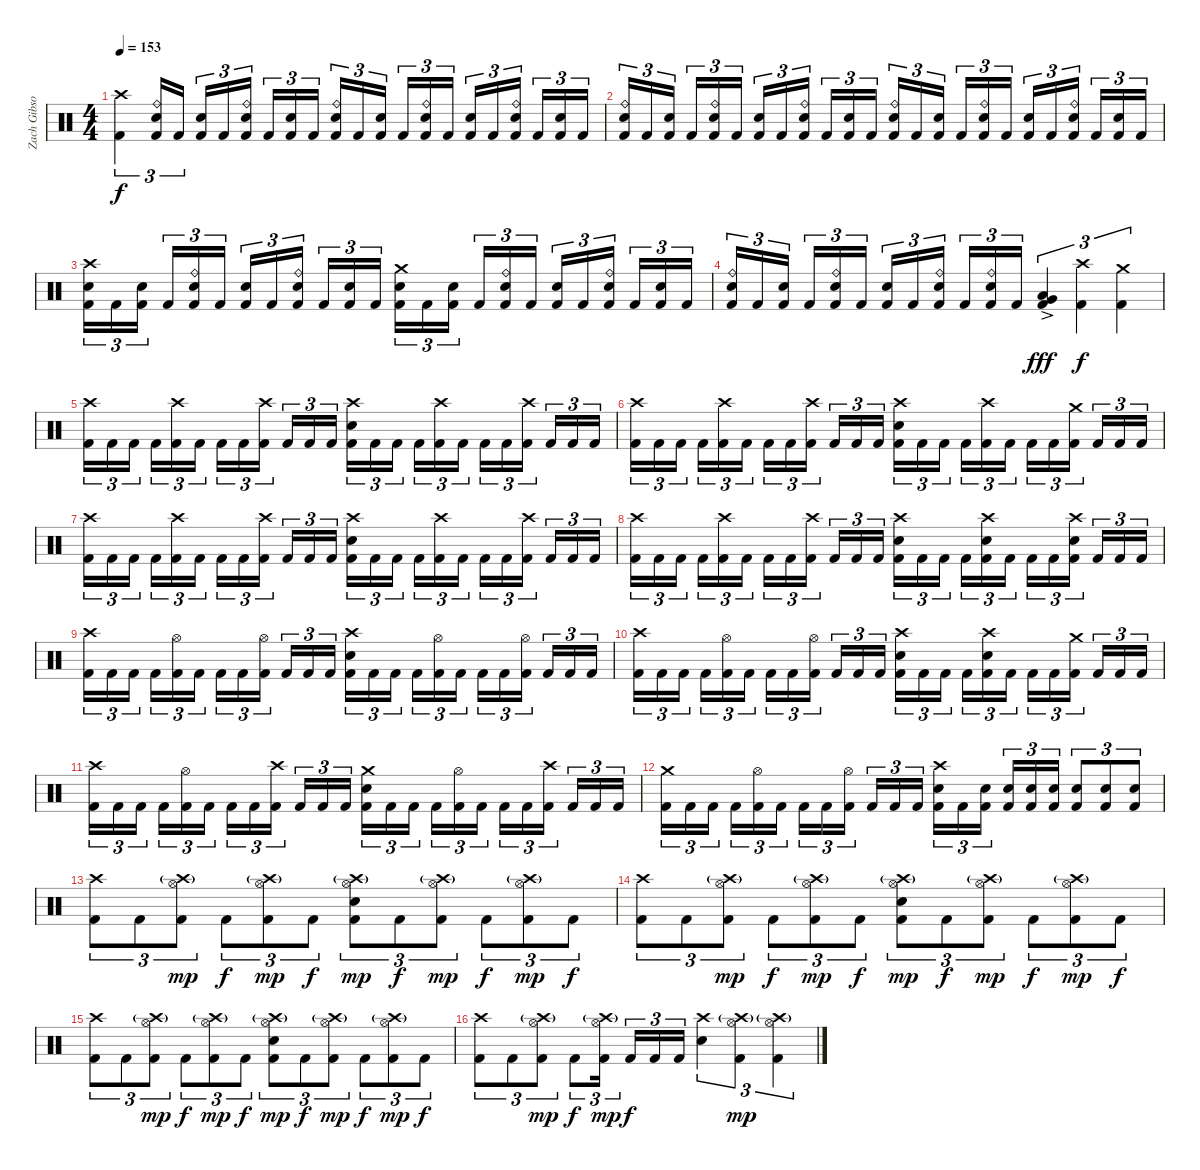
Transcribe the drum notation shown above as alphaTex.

\track ("Zach Gibson (Drums)" "Zach Gibso") {instrument percussion}
\staff {score}
\articulation defaults
\ts (4 4)
\tempo 153
\clef neutral
\ks c
("Crash high (hit)" "Kick (hit) 2").4{tu (3 2) dy f} ("Ride (bell)" "Snare (hit) 2" "Kick (hit) 2").16{tu (3 2)} "Kick (hit) 2".16{tu (3 2)} ("Snare (hit) 2" "Kick (hit) 2").16{tu (3 2)} "Kick (hit) 2".16{tu (3 2)} ("Ride (bell)" "Snare (hit) 2" "Kick (hit) 2").16{tu (3 2)} "Kick (hit) 2".16{tu (3 2)} ("Snare (hit) 2" "Kick (hit) 2").16{tu (3 2)} "Kick (hit) 2".16{tu (3 2)} ("Ride (bell)" "Snare (hit) 2" "Kick (hit) 2").16{tu (3 2)} "Kick (hit) 2".16{tu (3 2)} ("Snare (hit) 2" "Kick (hit) 2").16{tu (3 2)} "Kick (hit) 2".16{tu (3 2)} ("Ride (bell)" "Snare (hit) 2" "Kick (hit) 2").16{tu (3 2)} "Kick (hit) 2".16{tu (3 2)} ("Snare (hit) 2" "Kick (hit) 2").16{tu (3 2)} "Kick (hit) 2".16{tu (3 2)} ("Ride (bell)" "Snare (hit) 2" "Kick (hit) 2").16{tu (3 2)} "Kick (hit) 2".16{tu (3 2)} ("Snare (hit) 2" "Kick (hit) 2").16{tu (3 2)} "Kick (hit) 2".16{tu (3 2)} |
("Ride (bell)" "Snare (hit) 2" "Kick (hit) 2").16{tu (3 2)} "Kick (hit) 2".16{tu (3 2)} ("Snare (hit) 2" "Kick (hit) 2").16{tu (3 2)} "Kick (hit) 2".16{tu (3 2)} ("Ride (bell)" "Snare (hit) 2" "Kick (hit) 2").16{tu (3 2)} "Kick (hit) 2".16{tu (3 2)} ("Snare (hit) 2" "Kick (hit) 2").16{tu (3 2)} "Kick (hit) 2".16{tu (3 2)} ("Ride (bell)" "Snare (hit) 2" "Kick (hit) 2").16{tu (3 2)} "Kick (hit) 2".16{tu (3 2)} ("Snare (hit) 2" "Kick (hit) 2").16{tu (3 2)} "Kick (hit) 2".16{tu (3 2)} ("Ride (bell)" "Snare (hit) 2" "Kick (hit) 2").16{tu (3 2)} "Kick (hit) 2".16{tu (3 2)} ("Snare (hit) 2" "Kick (hit) 2").16{tu (3 2)} "Kick (hit) 2".16{tu (3 2)} ("Ride (bell)" "Snare (hit) 2" "Kick (hit) 2").16{tu (3 2)} "Kick (hit) 2".16{tu (3 2)} ("Snare (hit) 2" "Kick (hit) 2").16{tu (3 2)} "Kick (hit) 2".16{tu (3 2)} ("Ride (bell)" "Snare (hit) 2" "Kick (hit) 2").16{tu (3 2)} "Kick (hit) 2".16{tu (3 2)} ("Snare (hit) 2" "Kick (hit) 2").16{tu (3 2)} "Kick (hit) 2".16{tu (3 2)} |
("Crash high (hit)" "Snare (hit) 2" "Kick (hit) 2").16{tu (3 2)} "Kick (hit) 2".16{tu (3 2)} ("Snare (hit) 2" "Kick (hit) 2").16{tu (3 2)} "Kick (hit) 2".16{tu (3 2)} ("Ride (bell)" "Snare (hit) 2" "Kick (hit) 2").16{tu (3 2)} "Kick (hit) 2".16{tu (3 2)} ("Snare (hit) 2" "Kick (hit) 2").16{tu (3 2)} "Kick (hit) 2".16{tu (3 2)} ("Ride (bell)" "Snare (hit) 2" "Kick (hit) 2").16{tu (3 2)} "Kick (hit) 2".16{tu (3 2)} ("Snare (hit) 2" "Kick (hit) 2").16{tu (3 2)} "Kick (hit) 2".16{tu (3 2)} ("Crash medium (hit)" "Snare (hit) 2" "Kick (hit) 2").16{tu (3 2)} "Kick (hit) 2".16{tu (3 2)} ("Snare (hit) 2" "Kick (hit) 2").16{tu (3 2)} "Kick (hit) 2".16{tu (3 2)} ("Ride (bell)" "Snare (hit) 2" "Kick (hit) 2").16{tu (3 2)} "Kick (hit) 2".16{tu (3 2)} ("Snare (hit) 2" "Kick (hit) 2").16{tu (3 2)} "Kick (hit) 2".16{tu (3 2)} ("Ride (bell)" "Snare (hit) 2" "Kick (hit) 2").16{tu (3 2)} "Kick (hit) 2".16{tu (3 2)} ("Snare (hit) 2" "Kick (hit) 2").16{tu (3 2)} "Kick (hit) 2".16{tu (3 2)} |
("Ride (bell)" "Snare (hit) 2" "Kick (hit) 2").16{tu (3 2)} "Kick (hit) 2".16{tu (3 2)} ("Snare (hit) 2" "Kick (hit) 2").16{tu (3 2)} "Kick (hit) 2".16{tu (3 2)} ("Ride (bell)" "Snare (hit) 2" "Kick (hit) 2").16{tu (3 2)} "Kick (hit) 2".16{tu (3 2)} ("Snare (hit) 2" "Kick (hit) 2").16{tu (3 2)} "Kick (hit) 2".16{tu (3 2)} ("Ride (bell)" "Snare (hit) 2" "Kick (hit) 2").16{tu (3 2)} "Kick (hit) 2".16{tu (3 2)} ("Ride (bell)" "Snare (hit) 2" "Kick (hit) 2").16{tu (3 2)} "Kick (hit) 2".16{tu (3 2)} ("Low Floor Tom (hit)"{ac} "Very Low Tom (hit)"{ac} "Kick (hit) 2").4{tu (3 2) dy fff} ("Crash high (hit)" "Kick (hit) 2").4{tu (3 2) dy f} ("Crash medium (hit)" "Kick (hit) 2").4{tu (3 2)} |
("Crash high (hit)" "Kick (hit) 2").16{tu (3 2)} "Kick (hit) 2".16{tu (3 2)} "Kick (hit) 2".16{tu (3 2)} "Kick (hit) 2".16{tu (3 2)} ("Crash high (hit)" "Kick (hit) 2").16{tu (3 2)} "Kick (hit) 2".16{tu (3 2)} "Kick (hit) 2".16{tu (3 2)} "Kick (hit) 2".16{tu (3 2)} ("Crash high (hit)" "Kick (hit) 2").16{tu (3 2)} "Kick (hit) 2".16{tu (3 2)} "Kick (hit) 2".16{tu (3 2)} "Kick (hit) 2".16{tu (3 2)} ("Snare (hit) 2" "Crash high (hit)" "Kick (hit) 2").16{tu (3 2)} "Kick (hit) 2".16{tu (3 2)} "Kick (hit) 2".16{tu (3 2)} "Kick (hit) 2".16{tu (3 2)} ("Crash high (hit)" "Kick (hit) 2").16{tu (3 2)} "Kick (hit) 2".16{tu (3 2)} "Kick (hit) 2".16{tu (3 2)} "Kick (hit) 2".16{tu (3 2)} ("Crash high (hit)" "Kick (hit) 2").16{tu (3 2)} "Kick (hit) 2".16{tu (3 2)} "Kick (hit) 2".16{tu (3 2)} "Kick (hit) 2".16{tu (3 2)} |
("Crash high (hit)" "Kick (hit) 2").16{tu (3 2)} "Kick (hit) 2".16{tu (3 2)} "Kick (hit) 2".16{tu (3 2)} "Kick (hit) 2".16{tu (3 2)} ("Crash high (hit)" "Kick (hit) 2").16{tu (3 2)} "Kick (hit) 2".16{tu (3 2)} "Kick (hit) 2".16{tu (3 2)} "Kick (hit) 2".16{tu (3 2)} ("Crash high (hit)" "Kick (hit) 2").16{tu (3 2)} "Kick (hit) 2".16{tu (3 2)} "Kick (hit) 2".16{tu (3 2)} "Kick (hit) 2".16{tu (3 2)} ("Snare (hit) 2" "Crash high (hit)" "Kick (hit) 2").16{tu (3 2)} "Kick (hit) 2".16{tu (3 2)} "Kick (hit) 2".16{tu (3 2)} "Kick (hit) 2".16{tu (3 2)} ("Crash high (hit)" "Kick (hit) 2").16{tu (3 2)} "Kick (hit) 2".16{tu (3 2)} "Kick (hit) 2".16{tu (3 2)} "Kick (hit) 2".16{tu (3 2)} ("Crash medium (hit)" "Kick (hit) 2").16{tu (3 2)} "Kick (hit) 2".16{tu (3 2)} "Kick (hit) 2".16{tu (3 2)} "Kick (hit) 2".16{tu (3 2)} |
("Crash high (hit)" "Kick (hit) 2").16{tu (3 2)} "Kick (hit) 2".16{tu (3 2)} "Kick (hit) 2".16{tu (3 2)} "Kick (hit) 2".16{tu (3 2)} ("Crash high (hit)" "Kick (hit) 2").16{tu (3 2)} "Kick (hit) 2".16{tu (3 2)} "Kick (hit) 2".16{tu (3 2)} "Kick (hit) 2".16{tu (3 2)} ("Crash high (hit)" "Kick (hit) 2").16{tu (3 2)} "Kick (hit) 2".16{tu (3 2)} "Kick (hit) 2".16{tu (3 2)} "Kick (hit) 2".16{tu (3 2)} ("Snare (hit) 2" "Crash high (hit)" "Kick (hit) 2").16{tu (3 2)} "Kick (hit) 2".16{tu (3 2)} "Kick (hit) 2".16{tu (3 2)} "Kick (hit) 2".16{tu (3 2)} ("Crash high (hit)" "Kick (hit) 2").16{tu (3 2)} "Kick (hit) 2".16{tu (3 2)} "Kick (hit) 2".16{tu (3 2)} "Kick (hit) 2".16{tu (3 2)} ("Crash high (hit)" "Kick (hit) 2").16{tu (3 2)} "Kick (hit) 2".16{tu (3 2)} "Kick (hit) 2".16{tu (3 2)} "Kick (hit) 2".16{tu (3 2)} |
("Crash high (hit)" "Kick (hit) 2").16{tu (3 2)} "Kick (hit) 2".16{tu (3 2)} "Kick (hit) 2".16{tu (3 2)} "Kick (hit) 2".16{tu (3 2)} ("Crash high (hit)" "Kick (hit) 2").16{tu (3 2)} "Kick (hit) 2".16{tu (3 2)} "Kick (hit) 2".16{tu (3 2)} "Kick (hit) 2".16{tu (3 2)} ("Crash high (hit)" "Kick (hit) 2").16{tu (3 2)} "Kick (hit) 2".16{tu (3 2)} "Kick (hit) 2".16{tu (3 2)} "Kick (hit) 2".16{tu (3 2)} ("Snare (hit) 2" "Crash high (hit)" "Kick (hit) 2").16{tu (3 2)} "Kick (hit) 2".16{tu (3 2)} "Kick (hit) 2".16{tu (3 2)} "Kick (hit) 2".16{tu (3 2)} ("Snare (hit) 2" "Crash high (hit)" "Kick (hit) 2").16{tu (3 2)} "Kick (hit) 2".16{tu (3 2)} "Kick (hit) 2".16{tu (3 2)} "Kick (hit) 2".16{tu (3 2)} ("Snare (hit) 2" "Crash high (hit)" "Kick (hit) 2").16{tu (3 2)} "Kick (hit) 2".16{tu (3 2)} "Kick (hit) 2".16{tu (3 2)} "Kick (hit) 2".16{tu (3 2)} |
("Crash high (hit)" "Kick (hit) 2").16{tu (3 2)} "Kick (hit) 2".16{tu (3 2)} "Kick (hit) 2".16{tu (3 2)} "Kick (hit) 2".16{tu (3 2)} ("Hi-Hat (open)" "Kick (hit) 2").16{tu (3 2)} "Kick (hit) 2".16{tu (3 2)} "Kick (hit) 2".16{tu (3 2)} "Kick (hit) 2".16{tu (3 2)} ("Hi-Hat (open)" "Kick (hit) 2").16{tu (3 2)} "Kick (hit) 2".16{tu (3 2)} "Kick (hit) 2".16{tu (3 2)} "Kick (hit) 2".16{tu (3 2)} ("Snare (hit) 2" "Crash high (hit)" "Kick (hit) 2").16{tu (3 2)} "Kick (hit) 2".16{tu (3 2)} "Kick (hit) 2".16{tu (3 2)} "Kick (hit) 2".16{tu (3 2)} ("Hi-Hat (open)" "Kick (hit) 2").16{tu (3 2)} "Kick (hit) 2".16{tu (3 2)} "Kick (hit) 2".16{tu (3 2)} "Kick (hit) 2".16{tu (3 2)} ("Hi-Hat (open)" "Kick (hit) 2").16{tu (3 2)} "Kick (hit) 2".16{tu (3 2)} "Kick (hit) 2".16{tu (3 2)} "Kick (hit) 2".16{tu (3 2)} |
("Crash high (hit)" "Kick (hit) 2").16{tu (3 2)} "Kick (hit) 2".16{tu (3 2)} "Kick (hit) 2".16{tu (3 2)} "Kick (hit) 2".16{tu (3 2)} ("Hi-Hat (open)" "Kick (hit) 2").16{tu (3 2)} "Kick (hit) 2".16{tu (3 2)} "Kick (hit) 2".16{tu (3 2)} "Kick (hit) 2".16{tu (3 2)} ("Hi-Hat (open)" "Kick (hit) 2").16{tu (3 2)} "Kick (hit) 2".16{tu (3 2)} "Kick (hit) 2".16{tu (3 2)} "Kick (hit) 2".16{tu (3 2)} ("Snare (hit) 2" "Crash high (hit)" "Kick (hit) 2").16{tu (3 2)} "Kick (hit) 2".16{tu (3 2)} "Kick (hit) 2".16{tu (3 2)} "Kick (hit) 2".16{tu (3 2)} ("Snare (hit) 2" "Crash high (hit)" "Kick (hit) 2").16{tu (3 2)} "Kick (hit) 2".16{tu (3 2)} "Kick (hit) 2".16{tu (3 2)} "Kick (hit) 2".16{tu (3 2)} ("Crash medium (hit)" "Kick (hit) 2").16{tu (3 2)} "Kick (hit) 2".16{tu (3 2)} "Kick (hit) 2".16{tu (3 2)} "Kick (hit) 2".16{tu (3 2)} |
("Crash high (hit)" "Kick (hit) 2").16{tu (3 2)} "Kick (hit) 2".16{tu (3 2)} "Kick (hit) 2".16{tu (3 2)} "Kick (hit) 2".16{tu (3 2)} ("Hi-Hat (open)" "Kick (hit) 2").16{tu (3 2)} "Kick (hit) 2".16{tu (3 2)} "Kick (hit) 2".16{tu (3 2)} "Kick (hit) 2".16{tu (3 2)} ("Crash high (hit)" "Kick (hit) 2").16{tu (3 2)} "Kick (hit) 2".16{tu (3 2)} "Kick (hit) 2".16{tu (3 2)} "Kick (hit) 2".16{tu (3 2)} ("Snare (hit) 2" "Crash medium (hit)" "Kick (hit) 2").16{tu (3 2)} "Kick (hit) 2".16{tu (3 2)} "Kick (hit) 2".16{tu (3 2)} "Kick (hit) 2".16{tu (3 2)} ("Hi-Hat (open)" "Kick (hit) 2").16{tu (3 2)} "Kick (hit) 2".16{tu (3 2)} "Kick (hit) 2".16{tu (3 2)} "Kick (hit) 2".16{tu (3 2)} ("Crash high (hit)" "Kick (hit) 2").16{tu (3 2)} "Kick (hit) 2".16{tu (3 2)} "Kick (hit) 2".16{tu (3 2)} "Kick (hit) 2".16{tu (3 2)} |
("Crash medium (hit)" "Kick (hit) 2").16{tu (3 2)} "Kick (hit) 2".16{tu (3 2)} "Kick (hit) 2".16{tu (3 2)} "Kick (hit) 2".16{tu (3 2)} ("Hi-Hat (open)" "Kick (hit) 2").16{tu (3 2)} "Kick (hit) 2".16{tu (3 2)} "Kick (hit) 2".16{tu (3 2)} "Kick (hit) 2".16{tu (3 2)} ("Hi-Hat (open)" "Kick (hit) 2").16{tu (3 2)} "Kick (hit) 2".16{tu (3 2)} "Kick (hit) 2".16{tu (3 2)} "Kick (hit) 2".16{tu (3 2)} ("Snare (hit) 2" "Crash high (hit)" "Kick (hit) 2").16{tu (3 2)} "Kick (hit) 2".16{tu (3 2)} ("Snare (hit) 2" "Kick (hit) 2").16{tu (3 2)} ("Snare (hit) 2" "Kick (hit) 2").16{tu (3 2)} ("Snare (hit) 2" "Kick (hit) 2").16{tu (3 2)} ("Snare (hit) 2" "Kick (hit) 2").16{tu (3 2)} ("Snare (hit) 2" "Kick (hit) 2").8{tu (3 2)} ("Snare (hit) 2" "Kick (hit) 2").8{tu (3 2)} ("Snare (hit) 2" "Kick (hit) 2").8{tu (3 2)} |
("Crash high (hit)" "Kick (hit) 2").8{tu (3 2)} "Kick (hit) 2".8{tu (3 2)} ("Crash high (hit)"{g} "Hi-Hat (open)" "Kick (hit) 2").8{tu (3 2) dy mp} "Kick (hit) 2".8{tu (3 2) dy f} ("Crash high (hit)"{g} "Hi-Hat (open)" "Kick (hit) 2").8{tu (3 2) dy mp} "Kick (hit) 2".8{tu (3 2) dy f} ("Crash high (hit)"{g} "Snare (hit) 2" "Hi-Hat (open)" "Kick (hit) 2").8{tu (3 2) dy mp} "Kick (hit) 2".8{tu (3 2) dy f} ("Crash high (hit)"{g} "Hi-Hat (open)" "Kick (hit) 2").8{tu (3 2) dy mp} "Kick (hit) 2".8{tu (3 2) dy f} ("Crash high (hit)"{g} "Hi-Hat (open)" "Kick (hit) 2").8{tu (3 2) dy mp} "Kick (hit) 2".8{tu (3 2) dy f} |
("Crash high (hit)" "Kick (hit) 2").8{tu (3 2)} "Kick (hit) 2".8{tu (3 2)} ("Crash high (hit)"{g} "Hi-Hat (open)" "Kick (hit) 2").8{tu (3 2) dy mp} "Kick (hit) 2".8{tu (3 2) dy f} ("Crash high (hit)"{g} "Hi-Hat (open)" "Kick (hit) 2").8{tu (3 2) dy mp} "Kick (hit) 2".8{tu (3 2) dy f} ("Crash high (hit)"{g} "Snare (hit) 2" "Hi-Hat (open)" "Kick (hit) 2").8{tu (3 2) dy mp} "Kick (hit) 2".8{tu (3 2) dy f} ("Crash high (hit)"{g} "Hi-Hat (open)" "Kick (hit) 2").8{tu (3 2) dy mp} "Kick (hit) 2".8{tu (3 2) dy f} ("Crash high (hit)"{g} "Hi-Hat (open)" "Kick (hit) 2").8{tu (3 2) dy mp} "Kick (hit) 2".8{tu (3 2) dy f} |
("Crash high (hit)" "Kick (hit) 2").8{tu (3 2)} "Kick (hit) 2".8{tu (3 2)} ("Crash high (hit)"{g} "Hi-Hat (open)" "Kick (hit) 2").8{tu (3 2) dy mp} "Kick (hit) 2".8{tu (3 2) dy f} ("Crash high (hit)"{g} "Hi-Hat (open)" "Kick (hit) 2").8{tu (3 2) dy mp} "Kick (hit) 2".8{tu (3 2) dy f} ("Crash high (hit)"{g} "Snare (hit) 2" "Hi-Hat (open)" "Kick (hit) 2").8{tu (3 2) dy mp} "Kick (hit) 2".8{tu (3 2) dy f} ("Crash high (hit)"{g} "Hi-Hat (open)" "Kick (hit) 2").8{tu (3 2) dy mp} "Kick (hit) 2".8{tu (3 2) dy f} ("Crash high (hit)"{g} "Hi-Hat (open)" "Kick (hit) 2").8{tu (3 2) dy mp} "Kick (hit) 2".8{tu (3 2) dy f} |
("Crash high (hit)" "Kick (hit) 2").8{tu (3 2)} "Kick (hit) 2".8{tu (3 2)} ("Crash high (hit)"{g} "Hi-Hat (open)" "Kick (hit) 2").8{tu (3 2) dy mp} "Kick (hit) 2".8{tu (3 2) dy f} ("Crash high (hit)"{g} "Hi-Hat (open)" "Kick (hit) 2").16{tu (3 2) dy mp} "Kick (hit) 2".16{tu (3 2) dy f} "Kick (hit) 2".16{tu (3 2)} "Kick (hit) 2".16{tu (3 2)} ("Crash high (hit)" "Snare (hit) 2").4{tu (3 2)} ("Crash high (hit)"{g} "Hi-Hat (open)" "Kick (hit) 2").4{tu (3 2) dy mp} ("Crash high (hit)"{g} "Hi-Hat (open)" "Kick (hit) 2").4{tu (3 2)}
